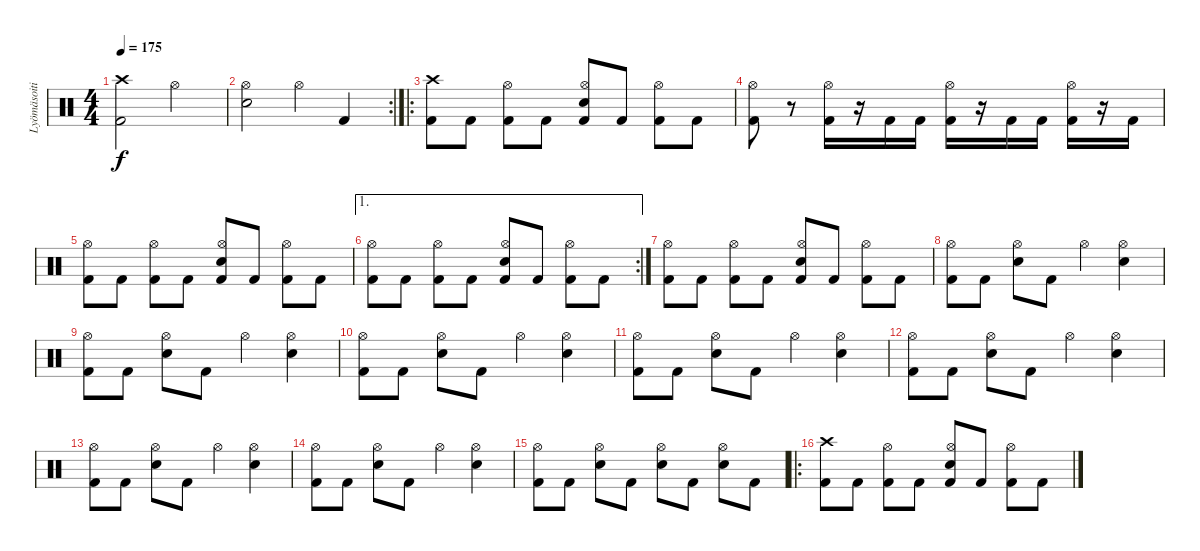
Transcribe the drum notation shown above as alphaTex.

\track ("Lyömäsoitin" "Lyömäsoiti") {instrument percussion}
\staff {score}
\articulation defaults
\ts (4 4)
\tempo 175
\clef neutral
\ks c
("Kick (hit) 2" "Crash high (hit)").2{dy f} "Hi-Hat (open)".2 |
\rc 2
("Electric Snare (hit)" "Hi-Hat (open)").2 "Hi-Hat (open)".4 "Kick (hit) 2".4 |
\ro
("Kick (hit) 2" "Crash high (hit)").8 "Kick (hit) 2".8 ("Kick (hit) 2" "Hi-Hat (open)").8 "Kick (hit) 2".8 ("Kick (hit) 2" "Electric Snare (hit)" "Hi-Hat (open)").8 "Kick (hit) 2".8 ("Kick (hit) 2" "Hi-Hat (open)").8 "Kick (hit) 2".8 |
("Kick (hit) 2" "Hi-Hat (open)").8 r.8 ("Kick (hit) 2" "Hi-Hat (open)").16 r.16 "Kick (hit) 2".16 "Kick (hit) 2".16 ("Kick (hit) 2" "Hi-Hat (open)").16 r.16 "Kick (hit) 2".16 "Kick (hit) 2".16 ("Kick (hit) 2" "Hi-Hat (open)").16 r.16 "Kick (hit) 2".16 |
("Kick (hit) 2" "Hi-Hat (open)").8 "Kick (hit) 2".8 ("Kick (hit) 2" "Hi-Hat (open)").8 "Kick (hit) 2".8 ("Kick (hit) 2" "Electric Snare (hit)" "Hi-Hat (open)").8 "Kick (hit) 2".8 ("Kick (hit) 2" "Hi-Hat (open)").8 "Kick (hit) 2".8 |
\ae 1
\rc 2
("Kick (hit) 2" "Hi-Hat (open)").8 "Kick (hit) 2".8 ("Kick (hit) 2" "Hi-Hat (open)").8 "Kick (hit) 2".8 ("Kick (hit) 2" "Electric Snare (hit)" "Hi-Hat (open)").8 "Kick (hit) 2".8 ("Kick (hit) 2" "Hi-Hat (open)").8 "Kick (hit) 2".8 |
("Kick (hit) 2" "Hi-Hat (open)").8 "Kick (hit) 2".8 ("Kick (hit) 2" "Hi-Hat (open)").8 "Kick (hit) 2".8 ("Kick (hit) 2" "Electric Snare (hit)" "Hi-Hat (open)").8 "Kick (hit) 2".8 ("Kick (hit) 2" "Hi-Hat (open)").8 "Kick (hit) 2".8 |
("Kick (hit) 2" "Hi-Hat (open)").8 "Kick (hit) 2".8 ("Electric Snare (hit)" "Hi-Hat (open)").8 "Kick (hit) 2".8 "Hi-Hat (open)".4 ("Electric Snare (hit)" "Hi-Hat (open)").4 |
("Kick (hit) 2" "Hi-Hat (open)").8 "Kick (hit) 2".8 ("Electric Snare (hit)" "Hi-Hat (open)").8 "Kick (hit) 2".8 "Hi-Hat (open)".4 ("Electric Snare (hit)" "Hi-Hat (open)").4 |
("Kick (hit) 2" "Hi-Hat (open)").8 "Kick (hit) 2".8 ("Electric Snare (hit)" "Hi-Hat (open)").8 "Kick (hit) 2".8 "Hi-Hat (open)".4 ("Electric Snare (hit)" "Hi-Hat (open)").4 |
("Kick (hit) 2" "Hi-Hat (open)").8 "Kick (hit) 2".8 ("Electric Snare (hit)" "Hi-Hat (open)").8 "Kick (hit) 2".8 "Hi-Hat (open)".4 ("Electric Snare (hit)" "Hi-Hat (open)").4 |
("Kick (hit) 2" "Hi-Hat (open)").8 "Kick (hit) 2".8 ("Electric Snare (hit)" "Hi-Hat (open)").8 "Kick (hit) 2".8 "Hi-Hat (open)".4 ("Electric Snare (hit)" "Hi-Hat (open)").4 |
("Kick (hit) 2" "Hi-Hat (open)").8 "Kick (hit) 2".8 ("Electric Snare (hit)" "Hi-Hat (open)").8 "Kick (hit) 2".8 "Hi-Hat (open)".4 ("Electric Snare (hit)" "Hi-Hat (open)").4 |
("Kick (hit) 2" "Hi-Hat (open)").8 "Kick (hit) 2".8 ("Electric Snare (hit)" "Hi-Hat (open)").8 "Kick (hit) 2".8 "Hi-Hat (open)".4 ("Electric Snare (hit)" "Hi-Hat (open)").4 |
("Kick (hit) 2" "Hi-Hat (open)").8 "Kick (hit) 2".8 ("Electric Snare (hit)" "Hi-Hat (open)").8 "Kick (hit) 2".8 ("Electric Snare (hit)" "Hi-Hat (open)").8 "Kick (hit) 2".8 ("Electric Snare (hit)" "Hi-Hat (open)").8 "Kick (hit) 2".8 |
\ro
("Kick (hit) 2" "Crash high (hit)").8 "Kick (hit) 2".8 ("Kick (hit) 2" "Hi-Hat (open)").8 "Kick (hit) 2".8 ("Kick (hit) 2" "Electric Snare (hit)" "Hi-Hat (open)").8 "Kick (hit) 2".8 ("Kick (hit) 2" "Hi-Hat (open)").8 "Kick (hit) 2".8
